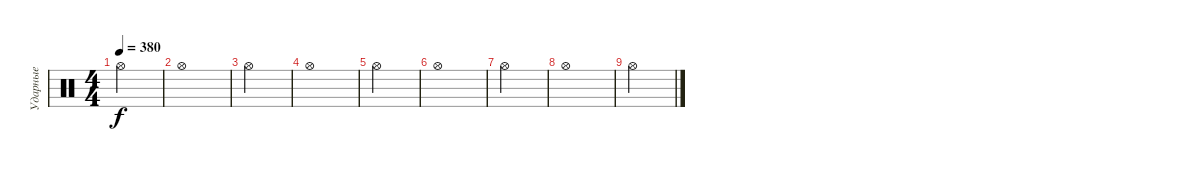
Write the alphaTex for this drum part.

\track ("Ударные" "Ударные") {instrument percussion}
\staff {score}
\articulation defaults
\ts (4 4)
\tempo 380
\clef neutral
\ks c "Hi-Hat (open)".2{dy f}
|
"Hi-Hat (open)".1 |
"Hi-Hat (open)".2 |
"Hi-Hat (open)".1 |
"Hi-Hat (open)".2 |
"Hi-Hat (open)".1 |
"Hi-Hat (open)".2 |
"Hi-Hat (open)".1 |
"Hi-Hat (open)".2
